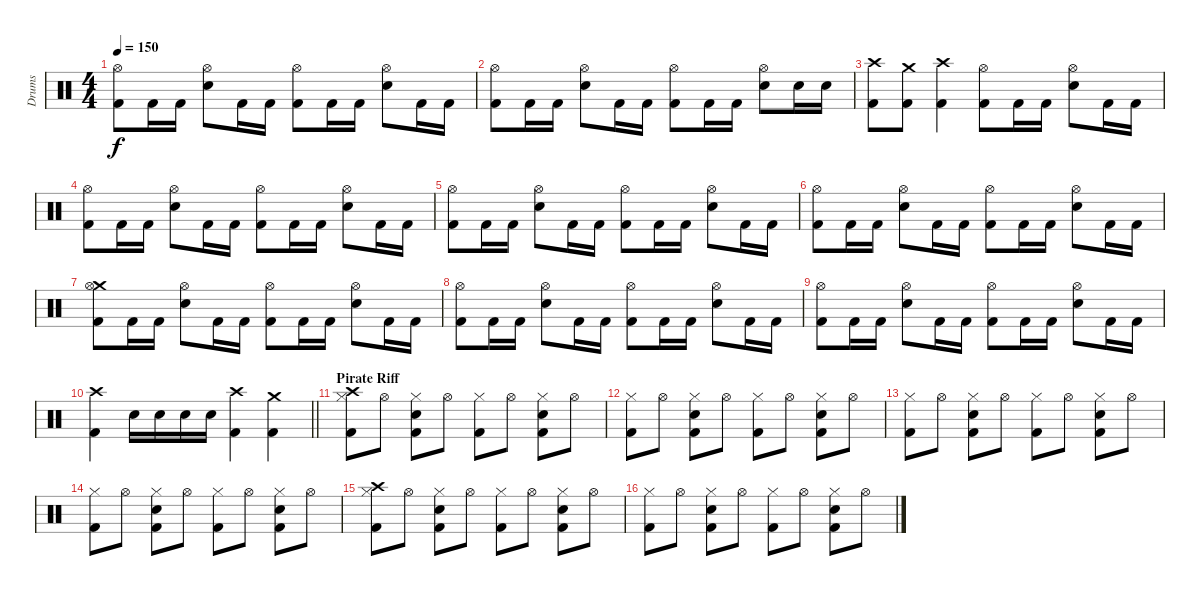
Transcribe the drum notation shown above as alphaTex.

\track ("Drums" "Drums") {instrument percussion}
\staff {score}
\articulation defaults
\ts (4 4)
\tempo 150
\clef neutral
\ks c
("Hi-Hat (open)" "Kick (hit) 2").8{dy f} "Kick (hit) 2".16 "Kick (hit) 2".16 ("Hi-Hat (open)" "Snare (hit) 2").8 "Kick (hit) 2".16 "Kick (hit) 2".16 ("Hi-Hat (open)" "Kick (hit) 2").8 "Kick (hit) 2".16 "Kick (hit) 2".16 ("Hi-Hat (open)" "Snare (hit) 2").8 "Kick (hit) 2".16 "Kick (hit) 2".16 |
("Hi-Hat (open)" "Kick (hit) 2").8 "Kick (hit) 2".16 "Kick (hit) 2".16 ("Hi-Hat (open)" "Snare (hit) 2").8 "Kick (hit) 2".16 "Kick (hit) 2".16 ("Hi-Hat (open)" "Kick (hit) 2").8 "Kick (hit) 2".16 "Kick (hit) 2".16 ("Hi-Hat (open)" "Snare (hit) 2").8 "Snare (hit) 2".16 "Snare (hit) 2".16 |
("Crash high (hit)" "Kick (hit) 2").8 ("Crash medium (hit)" "Kick (hit) 2").8 ("Crash high (hit)" "Kick (hit) 2").4 ("Hi-Hat (open)" "Kick (hit) 2").8 "Kick (hit) 2".16 "Kick (hit) 2".16 ("Hi-Hat (open)" "Snare (hit) 2").8 "Kick (hit) 2".16 "Kick (hit) 2".16 |
("Hi-Hat (open)" "Kick (hit) 2").8 "Kick (hit) 2".16 "Kick (hit) 2".16 ("Hi-Hat (open)" "Snare (hit) 2").8 "Kick (hit) 2".16 "Kick (hit) 2".16 ("Hi-Hat (open)" "Kick (hit) 2").8 "Kick (hit) 2".16 "Kick (hit) 2".16 ("Hi-Hat (open)" "Snare (hit) 2").8 "Kick (hit) 2".16 "Kick (hit) 2".16 |
("Hi-Hat (open)" "Kick (hit) 2").8 "Kick (hit) 2".16 "Kick (hit) 2".16 ("Hi-Hat (open)" "Snare (hit) 2").8 "Kick (hit) 2".16 "Kick (hit) 2".16 ("Hi-Hat (open)" "Kick (hit) 2").8 "Kick (hit) 2".16 "Kick (hit) 2".16 ("Hi-Hat (open)" "Snare (hit) 2").8 "Kick (hit) 2".16 "Kick (hit) 2".16 |
("Hi-Hat (open)" "Kick (hit) 2").8 "Kick (hit) 2".16 "Kick (hit) 2".16 ("Hi-Hat (open)" "Snare (hit) 2").8 "Kick (hit) 2".16 "Kick (hit) 2".16 ("Hi-Hat (open)" "Kick (hit) 2").8 "Kick (hit) 2".16 "Kick (hit) 2".16 ("Hi-Hat (open)" "Snare (hit) 2").8 "Kick (hit) 2".16 "Kick (hit) 2".16 |
("Crash medium (hit)" "Hi-Hat (open)" "Kick (hit) 2").8 "Kick (hit) 2".16 "Kick (hit) 2".16 ("Hi-Hat (open)" "Snare (hit) 2").8 "Kick (hit) 2".16 "Kick (hit) 2".16 ("Hi-Hat (open)" "Kick (hit) 2").8 "Kick (hit) 2".16 "Kick (hit) 2".16 ("Hi-Hat (open)" "Snare (hit) 2").8 "Kick (hit) 2".16 "Kick (hit) 2".16 |
("Hi-Hat (open)" "Kick (hit) 2").8 "Kick (hit) 2".16 "Kick (hit) 2".16 ("Hi-Hat (open)" "Snare (hit) 2").8 "Kick (hit) 2".16 "Kick (hit) 2".16 ("Hi-Hat (open)" "Kick (hit) 2").8 "Kick (hit) 2".16 "Kick (hit) 2".16 ("Hi-Hat (open)" "Snare (hit) 2").8 "Kick (hit) 2".16 "Kick (hit) 2".16 |
("Hi-Hat (open)" "Kick (hit) 2").8 "Kick (hit) 2".16 "Kick (hit) 2".16 ("Hi-Hat (open)" "Snare (hit) 2").8 "Kick (hit) 2".16 "Kick (hit) 2".16 ("Hi-Hat (open)" "Kick (hit) 2").8 "Kick (hit) 2".16 "Kick (hit) 2".16 ("Hi-Hat (open)" "Snare (hit) 2").8 "Kick (hit) 2".16 "Kick (hit) 2".16 |
\barLineRight lightlight
("Crash high (hit)" "Kick (hit) 2").4 "Snare (hit) 2".16 "Snare (hit) 2".16 "Snare (hit) 2".16 "Snare (hit) 2".16 ("Crash high (hit)" "Kick (hit) 2").4 ("Crash medium (hit)" "Kick (hit) 2").4 |
\section ("" "Pirate Riff")
("Crash high (hit)" "Hi-Hat (closed)" "Kick (hit) 2").8 "Hi-Hat (open)".8 ("Hi-Hat (closed)" "Snare (hit) 2" "Kick (hit) 2").8 "Hi-Hat (open)".8 ("Hi-Hat (closed)" "Kick (hit) 2").8 "Hi-Hat (open)".8 ("Hi-Hat (closed)" "Snare (hit) 2" "Kick (hit) 2").8 "Hi-Hat (open)".8 |
("Hi-Hat (closed)" "Kick (hit) 2").8 "Hi-Hat (open)".8 ("Hi-Hat (closed)" "Snare (hit) 2" "Kick (hit) 2").8 "Hi-Hat (open)".8 ("Hi-Hat (closed)" "Kick (hit) 2").8 "Hi-Hat (open)".8 ("Hi-Hat (closed)" "Snare (hit) 2" "Kick (hit) 2").8 "Hi-Hat (open)".8 |
("Hi-Hat (closed)" "Kick (hit) 2").8 "Hi-Hat (open)".8 ("Hi-Hat (closed)" "Snare (hit) 2" "Kick (hit) 2").8 "Hi-Hat (open)".8 ("Hi-Hat (closed)" "Kick (hit) 2").8 "Hi-Hat (open)".8 ("Hi-Hat (closed)" "Snare (hit) 2" "Kick (hit) 2").8 "Hi-Hat (open)".8 |
("Hi-Hat (closed)" "Kick (hit) 2").8 "Hi-Hat (open)".8 ("Hi-Hat (closed)" "Snare (hit) 2" "Kick (hit) 2").8 "Hi-Hat (open)".8 ("Hi-Hat (closed)" "Kick (hit) 2").8 "Hi-Hat (open)".8 ("Hi-Hat (closed)" "Snare (hit) 2" "Kick (hit) 2").8 "Hi-Hat (open)".8 |
("Crash high (hit)" "Hi-Hat (closed)" "Kick (hit) 2").8 "Hi-Hat (open)".8 ("Hi-Hat (closed)" "Snare (hit) 2" "Kick (hit) 2").8 "Hi-Hat (open)".8 ("Hi-Hat (closed)" "Kick (hit) 2").8 "Hi-Hat (open)".8 ("Hi-Hat (closed)" "Snare (hit) 2" "Kick (hit) 2").8 "Hi-Hat (open)".8 |
("Hi-Hat (closed)" "Kick (hit) 2").8 "Hi-Hat (open)".8 ("Hi-Hat (closed)" "Snare (hit) 2" "Kick (hit) 2").8 "Hi-Hat (open)".8 ("Hi-Hat (closed)" "Kick (hit) 2").8 "Hi-Hat (open)".8 ("Hi-Hat (closed)" "Snare (hit) 2" "Kick (hit) 2").8 "Hi-Hat (open)".8
